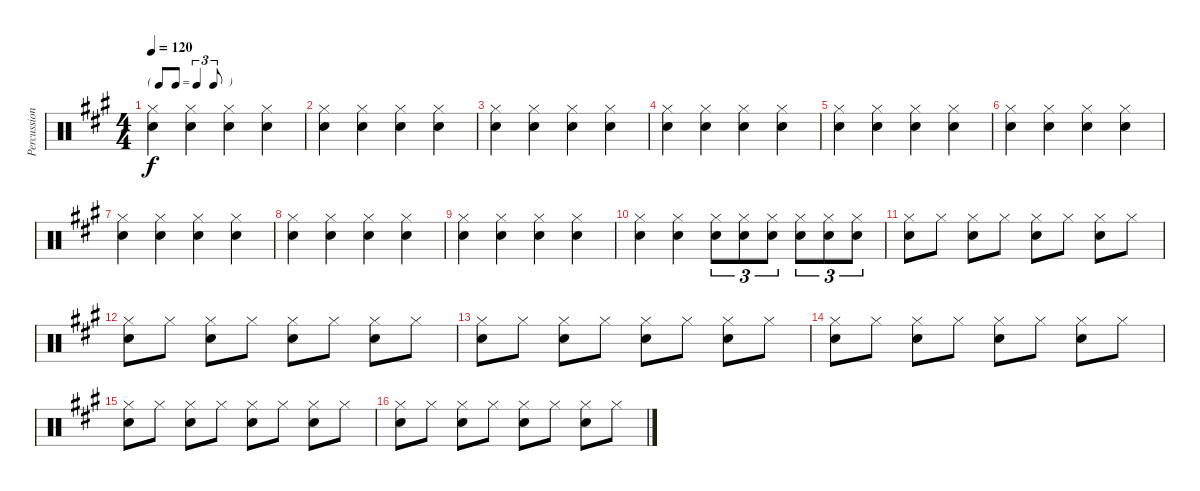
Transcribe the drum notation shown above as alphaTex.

\track ("Percussions" "Percussion") {instrument percussion}
\staff {score}
\articulation defaults
\ts (4 4)
\tf triplet8th
\tempo 120
\clef neutral
\ks a
("Snare (hit) 2" "Hi-Hat (closed)").4{dy f} ("Snare (hit) 2" "Hi-Hat (closed)").4 ("Snare (hit) 2" "Hi-Hat (closed)").4 ("Snare (hit) 2" "Hi-Hat (closed)").4 |
("Snare (hit) 2" "Hi-Hat (closed)").4 ("Snare (hit) 2" "Hi-Hat (closed)").4 ("Snare (hit) 2" "Hi-Hat (closed)").4 ("Snare (hit) 2" "Hi-Hat (closed)").4 |
("Snare (hit) 2" "Hi-Hat (closed)").4 ("Snare (hit) 2" "Hi-Hat (closed)").4 ("Snare (hit) 2" "Hi-Hat (closed)").4 ("Snare (hit) 2" "Hi-Hat (closed)").4 |
("Snare (hit) 2" "Hi-Hat (closed)").4 ("Snare (hit) 2" "Hi-Hat (closed)").4 ("Snare (hit) 2" "Hi-Hat (closed)").4 ("Snare (hit) 2" "Hi-Hat (closed)").4 |
("Snare (hit) 2" "Hi-Hat (closed)").4 ("Snare (hit) 2" "Hi-Hat (closed)").4 ("Snare (hit) 2" "Hi-Hat (closed)").4 ("Snare (hit) 2" "Hi-Hat (closed)").4 |
("Snare (hit) 2" "Hi-Hat (closed)").4 ("Snare (hit) 2" "Hi-Hat (closed)").4 ("Snare (hit) 2" "Hi-Hat (closed)").4 ("Snare (hit) 2" "Hi-Hat (closed)").4 |
("Snare (hit) 2" "Hi-Hat (closed)").4 ("Snare (hit) 2" "Hi-Hat (closed)").4 ("Snare (hit) 2" "Hi-Hat (closed)").4 ("Snare (hit) 2" "Hi-Hat (closed)").4 |
("Snare (hit) 2" "Hi-Hat (closed)").4 ("Snare (hit) 2" "Hi-Hat (closed)").4 ("Snare (hit) 2" "Hi-Hat (closed)").4 ("Snare (hit) 2" "Hi-Hat (closed)").4 |
("Snare (hit) 2" "Hi-Hat (closed)").4 ("Snare (hit) 2" "Hi-Hat (closed)").4 ("Snare (hit) 2" "Hi-Hat (closed)").4 ("Snare (hit) 2" "Hi-Hat (closed)").4 |
("Snare (hit) 2" "Hi-Hat (closed)").4 ("Snare (hit) 2" "Hi-Hat (closed)").4 ("Snare (hit) 2" "Hi-Hat (closed)").8{tu (3 2)} ("Snare (hit) 2" "Hi-Hat (closed)").8{tu (3 2)} ("Snare (hit) 2" "Hi-Hat (closed)").8{tu (3 2)} ("Snare (hit) 2" "Hi-Hat (closed)").8{tu (3 2)} ("Snare (hit) 2" "Hi-Hat (closed)").8{tu (3 2)} ("Snare (hit) 2" "Hi-Hat (closed)").8{tu (3 2)} |
("Snare (hit) 2" "Hi-Hat (closed)").8 "Hi-Hat (closed)".8 ("Snare (hit) 2" "Hi-Hat (closed)").8 "Hi-Hat (closed)".8 ("Snare (hit) 2" "Hi-Hat (closed)").8 "Hi-Hat (closed)".8 ("Snare (hit) 2" "Hi-Hat (closed)").8 "Hi-Hat (closed)".8 |
("Snare (hit) 2" "Hi-Hat (closed)").8 "Hi-Hat (closed)".8 ("Snare (hit) 2" "Hi-Hat (closed)").8 "Hi-Hat (closed)".8 ("Snare (hit) 2" "Hi-Hat (closed)").8 "Hi-Hat (closed)".8 ("Snare (hit) 2" "Hi-Hat (closed)").8 "Hi-Hat (closed)".8 |
("Snare (hit) 2" "Hi-Hat (closed)").8 "Hi-Hat (closed)".8 ("Snare (hit) 2" "Hi-Hat (closed)").8 "Hi-Hat (closed)".8 ("Snare (hit) 2" "Hi-Hat (closed)").8 "Hi-Hat (closed)".8 ("Snare (hit) 2" "Hi-Hat (closed)").8 "Hi-Hat (closed)".8 |
("Snare (hit) 2" "Hi-Hat (closed)").8 "Hi-Hat (closed)".8 ("Snare (hit) 2" "Hi-Hat (closed)").8 "Hi-Hat (closed)".8 ("Snare (hit) 2" "Hi-Hat (closed)").8 "Hi-Hat (closed)".8 ("Snare (hit) 2" "Hi-Hat (closed)").8 "Hi-Hat (closed)".8 |
("Snare (hit) 2" "Hi-Hat (closed)").8 "Hi-Hat (closed)".8 ("Snare (hit) 2" "Hi-Hat (closed)").8 "Hi-Hat (closed)".8 ("Snare (hit) 2" "Hi-Hat (closed)").8 "Hi-Hat (closed)".8 ("Snare (hit) 2" "Hi-Hat (closed)").8 "Hi-Hat (closed)".8 |
("Snare (hit) 2" "Hi-Hat (closed)").8 "Hi-Hat (closed)".8 ("Snare (hit) 2" "Hi-Hat (closed)").8 "Hi-Hat (closed)".8 ("Snare (hit) 2" "Hi-Hat (closed)").8 "Hi-Hat (closed)".8 ("Snare (hit) 2" "Hi-Hat (closed)").8 "Hi-Hat (closed)".8
